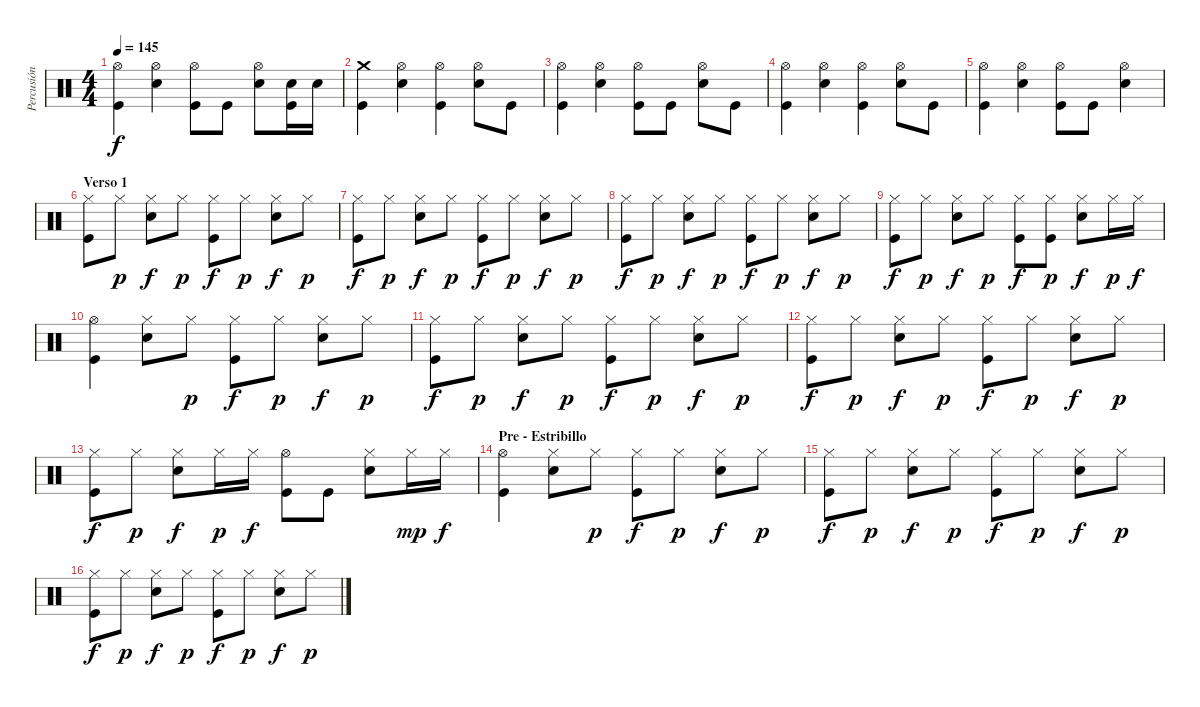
\track ("Percusión" "Percusión") {instrument percussion}
\staff {score}
\articulation defaults
\ts (4 4)
\tempo 145
\clef neutral
\ks c
("Hi-Hat (open)" "Kick (hit)").4{dy f} ("Hi-Hat (open)" "Snare (hit) 2").4 ("Hi-Hat (open)" "Kick (hit)").8 "Kick (hit)".8 ("Hi-Hat (open)" "Snare (hit) 2").8 ("Snare (hit) 2" "Kick (hit)").16 "Snare (hit) 2".16 |
("Crash medium (hit)" "Kick (hit)").4 ("Hi-Hat (open)" "Snare (hit) 2").4 ("Hi-Hat (open)" "Kick (hit)").4 ("Hi-Hat (open)" "Snare (hit) 2").8 "Kick (hit)".8 |
("Hi-Hat (open)" "Kick (hit)").4 ("Hi-Hat (open)" "Snare (hit) 2").4 ("Hi-Hat (open)" "Kick (hit)").8 "Kick (hit)".8 ("Hi-Hat (open)" "Snare (hit) 2").8 "Kick (hit)".8 |
("Hi-Hat (open)" "Kick (hit)").4 ("Hi-Hat (open)" "Snare (hit) 2").4 ("Hi-Hat (open)" "Kick (hit)").4 ("Hi-Hat (open)" "Snare (hit) 2").8 "Kick (hit)".8 |
("Hi-Hat (open)" "Kick (hit)").4 ("Hi-Hat (open)" "Snare (hit) 2").4 ("Hi-Hat (open)" "Kick (hit)").8 "Kick (hit)".8 ("Hi-Hat (open)" "Snare (hit) 2").4 |
\section ("" "Verso 1")
("Hi-Hat (closed)" "Kick (hit)").8 "Hi-Hat (closed)".8{dy p} ("Hi-Hat (closed)" "Snare (hit) 2").8{dy f} "Hi-Hat (closed)".8{dy p} ("Hi-Hat (closed)" "Kick (hit)").8{dy f} "Hi-Hat (closed)".8{dy p} ("Hi-Hat (closed)" "Snare (hit) 2").8{dy f} "Hi-Hat (closed)".8{dy p} |
("Hi-Hat (closed)" "Kick (hit)").8{dy f} "Hi-Hat (closed)".8{dy p} ("Hi-Hat (closed)" "Snare (hit) 2").8{dy f} "Hi-Hat (closed)".8{dy p} ("Hi-Hat (closed)" "Kick (hit)").8{dy f} "Hi-Hat (closed)".8{dy p} ("Hi-Hat (closed)" "Snare (hit) 2").8{dy f} "Hi-Hat (closed)".8{dy p} |
("Hi-Hat (closed)" "Kick (hit)").8{dy f} "Hi-Hat (closed)".8{dy p} ("Hi-Hat (closed)" "Snare (hit) 2").8{dy f} "Hi-Hat (closed)".8{dy p} ("Hi-Hat (closed)" "Kick (hit)").8{dy f} "Hi-Hat (closed)".8{dy p} ("Hi-Hat (closed)" "Snare (hit) 2").8{dy f} "Hi-Hat (closed)".8{dy p} |
("Hi-Hat (closed)" "Kick (hit)").8{dy f} "Hi-Hat (closed)".8{dy p} ("Hi-Hat (closed)" "Snare (hit) 2").8{dy f} "Hi-Hat (closed)".8{dy p} ("Hi-Hat (closed)" "Kick (hit)").8{dy f} ("Hi-Hat (closed)" "Kick (hit)").8{dy p} ("Hi-Hat (closed)" "Snare (hit) 2").8{dy f} "Hi-Hat (closed)".16{dy p} "Hi-Hat (closed)".16{dy f} |
("Hi-Hat (open)" "Kick (hit)").4 ("Hi-Hat (closed)" "Snare (hit) 2").8 "Hi-Hat (closed)".8{dy p} ("Hi-Hat (closed)" "Kick (hit)").8{dy f} "Hi-Hat (closed)".8{dy p} ("Hi-Hat (closed)" "Snare (hit) 2").8{dy f} "Hi-Hat (closed)".8{dy p} |
("Hi-Hat (closed)" "Kick (hit)").8{dy f} "Hi-Hat (closed)".8{dy p} ("Hi-Hat (closed)" "Snare (hit) 2").8{dy f} "Hi-Hat (closed)".8{dy p} ("Hi-Hat (closed)" "Kick (hit)").8{dy f} "Hi-Hat (closed)".8{dy p} ("Hi-Hat (closed)" "Snare (hit) 2").8{dy f} "Hi-Hat (closed)".8{dy p} |
("Hi-Hat (closed)" "Kick (hit)").8{dy f} "Hi-Hat (closed)".8{dy p} ("Hi-Hat (closed)" "Snare (hit) 2").8{dy f} "Hi-Hat (closed)".8{dy p} ("Hi-Hat (closed)" "Kick (hit)").8{dy f} "Hi-Hat (closed)".8{dy p} ("Hi-Hat (closed)" "Snare (hit) 2").8{dy f} "Hi-Hat (closed)".8{dy p} |
("Hi-Hat (closed)" "Kick (hit)").8{dy f} "Hi-Hat (closed)".8{dy p} ("Hi-Hat (closed)" "Snare (hit) 2").8{dy f} "Hi-Hat (closed)".16{dy p} "Hi-Hat (closed)".16{dy f} ("Hi-Hat (open)" "Kick (hit)").8 "Kick (hit)".8 ("Hi-Hat (closed)" "Snare (hit) 2").8 "Hi-Hat (closed)".16{dy mp} "Hi-Hat (closed)".16{dy f} |
\section ("" "Pre - Estribillo")
("Hi-Hat (open)" "Kick (hit)").4 ("Hi-Hat (closed)" "Snare (hit) 2").8 "Hi-Hat (closed)".8{dy p} ("Hi-Hat (closed)" "Kick (hit)").8{dy f} "Hi-Hat (closed)".8{dy p} ("Hi-Hat (closed)" "Snare (hit) 2").8{dy f} "Hi-Hat (closed)".8{dy p} |
("Hi-Hat (closed)" "Kick (hit)").8{dy f} "Hi-Hat (closed)".8{dy p} ("Hi-Hat (closed)" "Snare (hit) 2").8{dy f} "Hi-Hat (closed)".8{dy p} ("Hi-Hat (closed)" "Kick (hit)").8{dy f} "Hi-Hat (closed)".8{dy p} ("Hi-Hat (closed)" "Snare (hit) 2").8{dy f} "Hi-Hat (closed)".8{dy p} |
("Hi-Hat (closed)" "Kick (hit)").8{dy f} "Hi-Hat (closed)".8{dy p} ("Hi-Hat (closed)" "Snare (hit) 2").8{dy f} "Hi-Hat (closed)".8{dy p} ("Hi-Hat (closed)" "Kick (hit)").8{dy f} "Hi-Hat (closed)".8{dy p} ("Hi-Hat (closed)" "Snare (hit) 2").8{dy f} "Hi-Hat (closed)".8{dy p}
